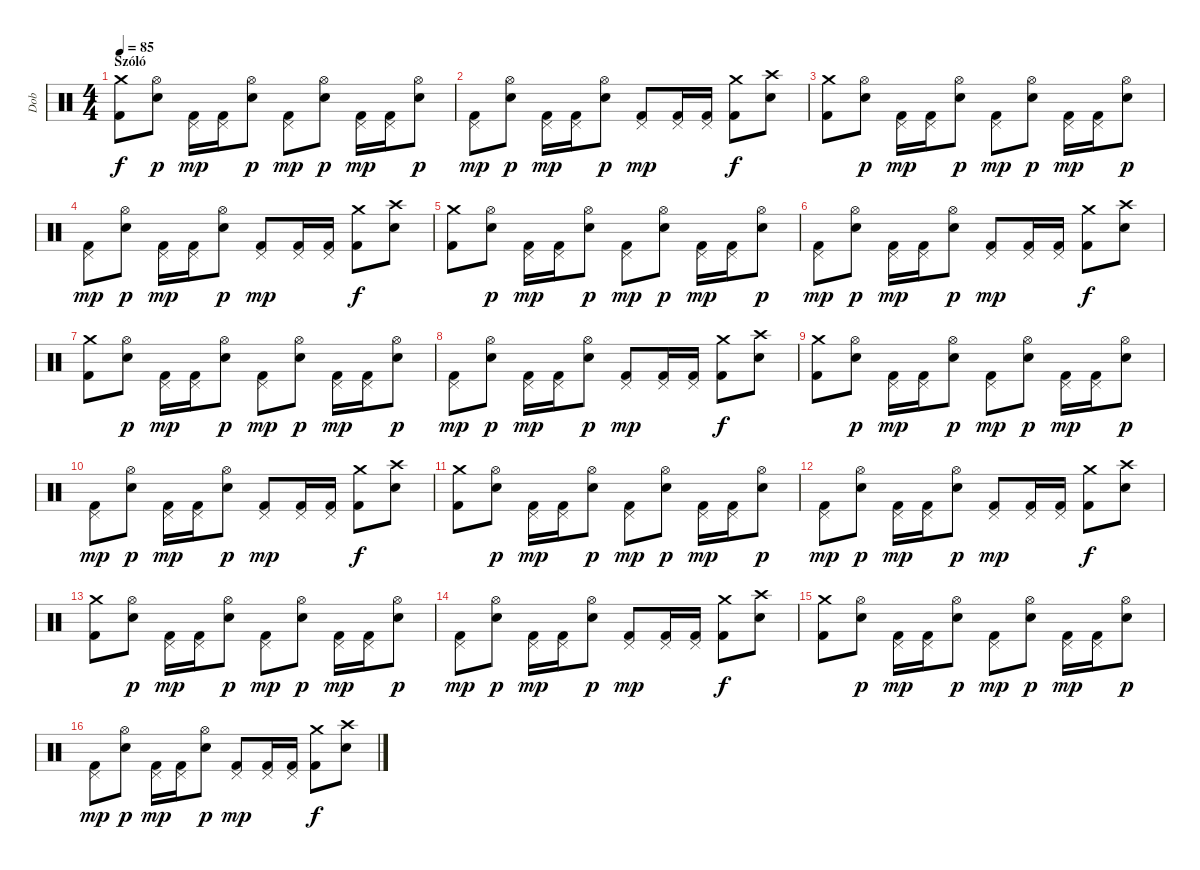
\track ("Dob" "Dob") {instrument percussion}
\staff {score}
\articulation defaults
\ts (4 4)
\section ("" "Szóló")
\tempo 85
\clef neutral
\ks c
("Kick (hit) 2" "Crash medium (hit)").8{dy f} ("Snare (hit) 2" "Hi-Hat (open)").8{dy p} ("Kick (hit) 2" "Pedal Hi-Hat (hit)").16{dy mp} ("Kick (hit) 2" "Pedal Hi-Hat (hit)").16 ("Snare (hit) 2" "Hi-Hat (open)").8{dy p} ("Kick (hit) 2" "Pedal Hi-Hat (hit)").8{dy mp} ("Snare (hit) 2" "Hi-Hat (open)").8{dy p} ("Kick (hit) 2" "Pedal Hi-Hat (hit)").16{dy mp} ("Kick (hit) 2" "Pedal Hi-Hat (hit)").16 ("Snare (hit) 2" "Hi-Hat (open)").8{dy p} |
("Kick (hit) 2" "Pedal Hi-Hat (hit)").8{dy mp} ("Snare (hit) 2" "Hi-Hat (open)").8{dy p} ("Kick (hit) 2" "Pedal Hi-Hat (hit)").16{dy mp} ("Kick (hit) 2" "Pedal Hi-Hat (hit)").16 ("Snare (hit) 2" "Hi-Hat (open)").8{dy p} ("Kick (hit) 2" "Pedal Hi-Hat (hit)").8{dy mp} ("Kick (hit) 2" "Pedal Hi-Hat (hit)").16 ("Kick (hit) 2" "Pedal Hi-Hat (hit)").16 ("Kick (hit) 2" "Crash medium (hit)").8{dy f} ("Snare (hit) 2" "Crash high (hit)").8 |
("Kick (hit) 2" "Crash medium (hit)").8 ("Snare (hit) 2" "Hi-Hat (open)").8{dy p} ("Kick (hit) 2" "Pedal Hi-Hat (hit)").16{dy mp} ("Kick (hit) 2" "Pedal Hi-Hat (hit)").16 ("Snare (hit) 2" "Hi-Hat (open)").8{dy p} ("Kick (hit) 2" "Pedal Hi-Hat (hit)").8{dy mp} ("Snare (hit) 2" "Hi-Hat (open)").8{dy p} ("Kick (hit) 2" "Pedal Hi-Hat (hit)").16{dy mp} ("Kick (hit) 2" "Pedal Hi-Hat (hit)").16 ("Snare (hit) 2" "Hi-Hat (open)").8{dy p} |
("Kick (hit) 2" "Pedal Hi-Hat (hit)").8{dy mp} ("Snare (hit) 2" "Hi-Hat (open)").8{dy p} ("Kick (hit) 2" "Pedal Hi-Hat (hit)").16{dy mp} ("Kick (hit) 2" "Pedal Hi-Hat (hit)").16 ("Snare (hit) 2" "Hi-Hat (open)").8{dy p} ("Kick (hit) 2" "Pedal Hi-Hat (hit)").8{dy mp} ("Kick (hit) 2" "Pedal Hi-Hat (hit)").16 ("Kick (hit) 2" "Pedal Hi-Hat (hit)").16 ("Kick (hit) 2" "Crash medium (hit)").8{dy f} ("Snare (hit) 2" "Crash high (hit)").8 |
("Kick (hit) 2" "Crash medium (hit)").8 ("Snare (hit) 2" "Hi-Hat (open)").8{dy p} ("Kick (hit) 2" "Pedal Hi-Hat (hit)").16{dy mp} ("Kick (hit) 2" "Pedal Hi-Hat (hit)").16 ("Snare (hit) 2" "Hi-Hat (open)").8{dy p} ("Kick (hit) 2" "Pedal Hi-Hat (hit)").8{dy mp} ("Snare (hit) 2" "Hi-Hat (open)").8{dy p} ("Kick (hit) 2" "Pedal Hi-Hat (hit)").16{dy mp} ("Kick (hit) 2" "Pedal Hi-Hat (hit)").16 ("Snare (hit) 2" "Hi-Hat (open)").8{dy p} |
("Kick (hit) 2" "Pedal Hi-Hat (hit)").8{dy mp} ("Snare (hit) 2" "Hi-Hat (open)").8{dy p} ("Kick (hit) 2" "Pedal Hi-Hat (hit)").16{dy mp} ("Kick (hit) 2" "Pedal Hi-Hat (hit)").16 ("Snare (hit) 2" "Hi-Hat (open)").8{dy p} ("Kick (hit) 2" "Pedal Hi-Hat (hit)").8{dy mp} ("Kick (hit) 2" "Pedal Hi-Hat (hit)").16 ("Kick (hit) 2" "Pedal Hi-Hat (hit)").16 ("Kick (hit) 2" "Crash medium (hit)").8{dy f} ("Snare (hit) 2" "Crash high (hit)").8 |
("Kick (hit) 2" "Crash medium (hit)").8 ("Snare (hit) 2" "Hi-Hat (open)").8{dy p} ("Kick (hit) 2" "Pedal Hi-Hat (hit)").16{dy mp} ("Kick (hit) 2" "Pedal Hi-Hat (hit)").16 ("Snare (hit) 2" "Hi-Hat (open)").8{dy p} ("Kick (hit) 2" "Pedal Hi-Hat (hit)").8{dy mp} ("Snare (hit) 2" "Hi-Hat (open)").8{dy p} ("Kick (hit) 2" "Pedal Hi-Hat (hit)").16{dy mp} ("Kick (hit) 2" "Pedal Hi-Hat (hit)").16 ("Snare (hit) 2" "Hi-Hat (open)").8{dy p} |
("Kick (hit) 2" "Pedal Hi-Hat (hit)").8{dy mp} ("Snare (hit) 2" "Hi-Hat (open)").8{dy p} ("Kick (hit) 2" "Pedal Hi-Hat (hit)").16{dy mp} ("Kick (hit) 2" "Pedal Hi-Hat (hit)").16 ("Snare (hit) 2" "Hi-Hat (open)").8{dy p} ("Kick (hit) 2" "Pedal Hi-Hat (hit)").8{dy mp} ("Kick (hit) 2" "Pedal Hi-Hat (hit)").16 ("Kick (hit) 2" "Pedal Hi-Hat (hit)").16 ("Kick (hit) 2" "Crash medium (hit)").8{dy f} ("Snare (hit) 2" "Crash high (hit)").8 |
("Kick (hit) 2" "Crash medium (hit)").8 ("Snare (hit) 2" "Hi-Hat (open)").8{dy p} ("Kick (hit) 2" "Pedal Hi-Hat (hit)").16{dy mp} ("Kick (hit) 2" "Pedal Hi-Hat (hit)").16 ("Snare (hit) 2" "Hi-Hat (open)").8{dy p} ("Kick (hit) 2" "Pedal Hi-Hat (hit)").8{dy mp} ("Snare (hit) 2" "Hi-Hat (open)").8{dy p} ("Kick (hit) 2" "Pedal Hi-Hat (hit)").16{dy mp} ("Kick (hit) 2" "Pedal Hi-Hat (hit)").16 ("Snare (hit) 2" "Hi-Hat (open)").8{dy p} |
("Kick (hit) 2" "Pedal Hi-Hat (hit)").8{dy mp} ("Snare (hit) 2" "Hi-Hat (open)").8{dy p} ("Kick (hit) 2" "Pedal Hi-Hat (hit)").16{dy mp} ("Kick (hit) 2" "Pedal Hi-Hat (hit)").16 ("Snare (hit) 2" "Hi-Hat (open)").8{dy p} ("Kick (hit) 2" "Pedal Hi-Hat (hit)").8{dy mp} ("Kick (hit) 2" "Pedal Hi-Hat (hit)").16 ("Kick (hit) 2" "Pedal Hi-Hat (hit)").16 ("Kick (hit) 2" "Crash medium (hit)").8{dy f} ("Snare (hit) 2" "Crash high (hit)").8 |
("Kick (hit) 2" "Crash medium (hit)").8 ("Snare (hit) 2" "Hi-Hat (open)").8{dy p} ("Kick (hit) 2" "Pedal Hi-Hat (hit)").16{dy mp} ("Kick (hit) 2" "Pedal Hi-Hat (hit)").16 ("Snare (hit) 2" "Hi-Hat (open)").8{dy p} ("Kick (hit) 2" "Pedal Hi-Hat (hit)").8{dy mp} ("Snare (hit) 2" "Hi-Hat (open)").8{dy p} ("Kick (hit) 2" "Pedal Hi-Hat (hit)").16{dy mp} ("Kick (hit) 2" "Pedal Hi-Hat (hit)").16 ("Snare (hit) 2" "Hi-Hat (open)").8{dy p} |
("Kick (hit) 2" "Pedal Hi-Hat (hit)").8{dy mp} ("Snare (hit) 2" "Hi-Hat (open)").8{dy p} ("Kick (hit) 2" "Pedal Hi-Hat (hit)").16{dy mp} ("Kick (hit) 2" "Pedal Hi-Hat (hit)").16 ("Snare (hit) 2" "Hi-Hat (open)").8{dy p} ("Kick (hit) 2" "Pedal Hi-Hat (hit)").8{dy mp} ("Kick (hit) 2" "Pedal Hi-Hat (hit)").16 ("Kick (hit) 2" "Pedal Hi-Hat (hit)").16 ("Kick (hit) 2" "Crash medium (hit)").8{dy f} ("Snare (hit) 2" "Crash high (hit)").8 |
("Kick (hit) 2" "Crash medium (hit)").8 ("Snare (hit) 2" "Hi-Hat (open)").8{dy p} ("Kick (hit) 2" "Pedal Hi-Hat (hit)").16{dy mp} ("Kick (hit) 2" "Pedal Hi-Hat (hit)").16 ("Snare (hit) 2" "Hi-Hat (open)").8{dy p} ("Kick (hit) 2" "Pedal Hi-Hat (hit)").8{dy mp} ("Snare (hit) 2" "Hi-Hat (open)").8{dy p} ("Kick (hit) 2" "Pedal Hi-Hat (hit)").16{dy mp} ("Kick (hit) 2" "Pedal Hi-Hat (hit)").16 ("Snare (hit) 2" "Hi-Hat (open)").8{dy p} |
("Kick (hit) 2" "Pedal Hi-Hat (hit)").8{dy mp} ("Snare (hit) 2" "Hi-Hat (open)").8{dy p} ("Kick (hit) 2" "Pedal Hi-Hat (hit)").16{dy mp} ("Kick (hit) 2" "Pedal Hi-Hat (hit)").16 ("Snare (hit) 2" "Hi-Hat (open)").8{dy p} ("Kick (hit) 2" "Pedal Hi-Hat (hit)").8{dy mp} ("Kick (hit) 2" "Pedal Hi-Hat (hit)").16 ("Kick (hit) 2" "Pedal Hi-Hat (hit)").16 ("Kick (hit) 2" "Crash medium (hit)").8{dy f} ("Snare (hit) 2" "Crash high (hit)").8 |
("Kick (hit) 2" "Crash medium (hit)").8 ("Snare (hit) 2" "Hi-Hat (open)").8{dy p} ("Kick (hit) 2" "Pedal Hi-Hat (hit)").16{dy mp} ("Kick (hit) 2" "Pedal Hi-Hat (hit)").16 ("Snare (hit) 2" "Hi-Hat (open)").8{dy p} ("Kick (hit) 2" "Pedal Hi-Hat (hit)").8{dy mp} ("Snare (hit) 2" "Hi-Hat (open)").8{dy p} ("Kick (hit) 2" "Pedal Hi-Hat (hit)").16{dy mp} ("Kick (hit) 2" "Pedal Hi-Hat (hit)").16 ("Snare (hit) 2" "Hi-Hat (open)").8{dy p} |
("Kick (hit) 2" "Pedal Hi-Hat (hit)").8{dy mp} ("Snare (hit) 2" "Hi-Hat (open)").8{dy p} ("Kick (hit) 2" "Pedal Hi-Hat (hit)").16{dy mp} ("Kick (hit) 2" "Pedal Hi-Hat (hit)").16 ("Snare (hit) 2" "Hi-Hat (open)").8{dy p} ("Kick (hit) 2" "Pedal Hi-Hat (hit)").8{dy mp} ("Kick (hit) 2" "Pedal Hi-Hat (hit)").16 ("Kick (hit) 2" "Pedal Hi-Hat (hit)").16 ("Kick (hit) 2" "Crash medium (hit)").8{dy f} ("Snare (hit) 2" "Crash high (hit)").8
